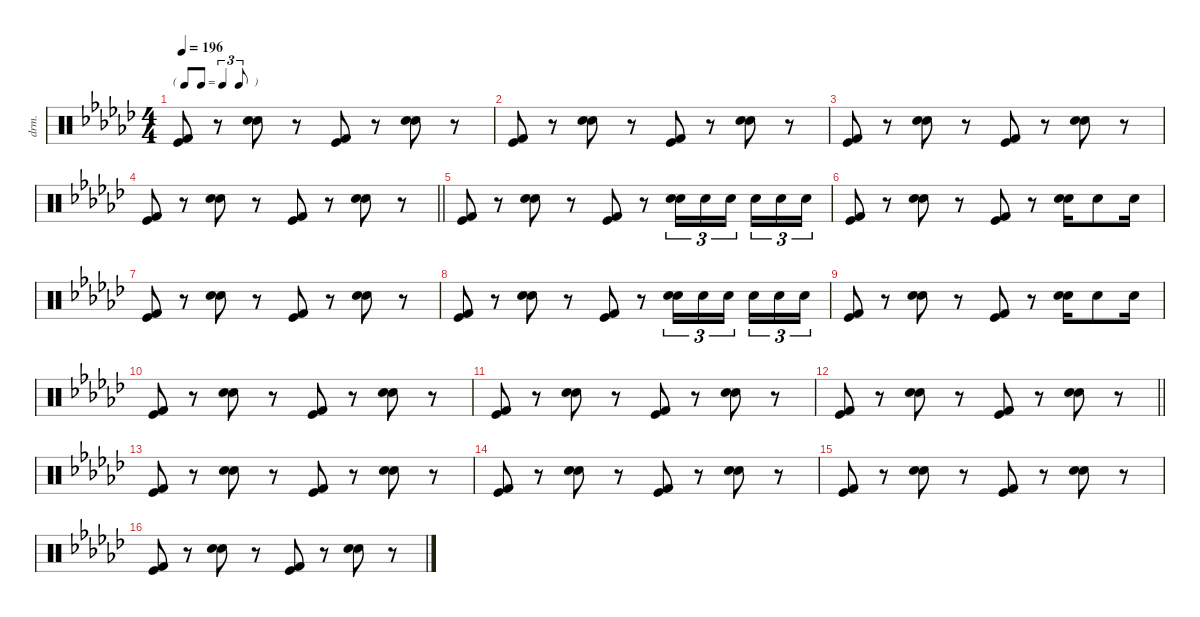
\defaultSystemsLayout 4
\hideDynamics
\bracketExtendMode nobrackets
\otherSystemsTrackNameOrientation horizontal
\track ("Percussions" "drm.") {defaultSystemsLayout 4 instrument percussion}
\staff {score}
\articulation defaults
\ts (4 4)
\tf triplet8th
\tempo 196
\clef neutral
\ks gb
("Kick (hit) 2"{acc forcenatural} "Kick (hit)"{acc forcenatural}).8{dy f beam Up} r.8{beam Up} ("Snare (hit) 2"{acc forcenatural} "Snare (hit) 2"{acc forcenatural}).8{beam Down} r.8{beam Down} ("Kick (hit) 2"{acc forcenatural} "Kick (hit)"{acc forcenatural}).8{beam Up} r.8{beam Up} ("Snare (hit) 2"{acc forcenatural} "Snare (hit) 2"{acc forcenatural}).8{beam Down} r.8{beam Down} |
("Kick (hit) 2"{acc forcenatural} "Kick (hit)"{acc forcenatural}).8{beam Up} r.8{beam Up} ("Snare (hit) 2"{acc forcenatural} "Snare (hit) 2"{acc forcenatural}).8{beam Down} r.8{beam Down} ("Kick (hit) 2"{acc forcenatural} "Kick (hit)"{acc forcenatural}).8{beam Up} r.8{beam Up} ("Snare (hit) 2"{acc forcenatural} "Snare (hit) 2"{acc forcenatural}).8{beam Down} r.8{beam Down} |
("Kick (hit) 2"{acc forcenatural} "Kick (hit)"{acc forcenatural}).8{beam Up} r.8{beam Up} ("Snare (hit) 2"{acc forcenatural} "Snare (hit) 2"{acc forcenatural}).8{beam Down} r.8{beam Down} ("Kick (hit) 2"{acc forcenatural} "Kick (hit)"{acc forcenatural}).8{beam Up} r.8{beam Up} ("Snare (hit) 2"{acc forcenatural} "Snare (hit) 2"{acc forcenatural}).8{beam Down} r.8{beam Down} |
\barLineRight lightlight
("Kick (hit) 2"{acc forcenatural} "Kick (hit)"{acc forcenatural}).8{beam Up} r.8{beam Up} ("Snare (hit) 2"{acc forcenatural} "Snare (hit) 2"{acc forcenatural}).8{beam Down} r.8{beam Down} ("Kick (hit) 2"{acc forcenatural} "Kick (hit)"{acc forcenatural}).8{beam Up} r.8{beam Up} ("Snare (hit) 2"{acc forcenatural} "Snare (hit) 2"{acc forcenatural}).8{beam Down} r.8{beam Down} |
("Kick (hit) 2"{acc forcenatural} "Kick (hit)"{acc forcenatural}).8{beam Up} r.8{beam Up} ("Snare (hit) 2"{acc forcenatural} "Snare (hit) 2"{acc forcenatural}).8{beam Down} r.8{beam Down} ("Kick (hit) 2"{acc forcenatural} "Kick (hit)"{acc forcenatural}).8{beam Up} r.8{beam Up} ("Hand Clap (hit)"{acc forcenatural} "Snare (hit) 2"{acc forcenatural}).16{tu (3 2) beam Down} "Hand Clap (hit)"{acc forcenatural}.16{tu (3 2) beam Down} "Hand Clap (hit)"{acc forcenatural}.16{tu (3 2) beam Down} "Hand Clap (hit)"{acc forcenatural}.16{tu (3 2) beam Down} "Hand Clap (hit)"{acc forcenatural}.16{tu (3 2) beam Down} "Hand Clap (hit)"{acc forcenatural}.16{tu (3 2) beam Down} |
("Kick (hit) 2"{acc forcenatural} "Kick (hit)"{acc forcenatural}).8{beam Up} r.8{beam Up} ("Snare (hit) 2"{acc forcenatural} "Snare (hit) 2"{acc forcenatural}).8{beam Down} r.8{beam Down} ("Kick (hit) 2"{acc forcenatural} "Kick (hit)"{acc forcenatural}).8{beam Up} r.8{beam Up} ("Snare (hit) 2"{acc forcenatural} "Snare (hit) 2"{acc forcenatural}).16{beam Down} "Hand Clap (hit)"{acc forcenatural}.8{beam Down} "Hand Clap (hit)"{acc forcenatural}.16{beam Down} |
("Kick (hit) 2"{acc forcenatural} "Kick (hit)"{acc forcenatural}).8{beam Up} r.8{beam Up} ("Snare (hit) 2"{acc forcenatural} "Snare (hit) 2"{acc forcenatural}).8{beam Down} r.8{beam Down} ("Kick (hit) 2"{acc forcenatural} "Kick (hit)"{acc forcenatural}).8{beam Up} r.8{beam Up} ("Snare (hit) 2"{acc forcenatural} "Snare (hit) 2"{acc forcenatural}).8{beam Down} r.8{beam Down} |
("Kick (hit) 2"{acc forcenatural} "Kick (hit)"{acc forcenatural}).8{beam Up} r.8{beam Up} ("Snare (hit) 2"{acc forcenatural} "Snare (hit) 2"{acc forcenatural}).8{beam Down} r.8{beam Down} ("Kick (hit) 2"{acc forcenatural} "Kick (hit)"{acc forcenatural}).8{beam Up} r.8{beam Up} ("Hand Clap (hit)"{acc forcenatural} "Snare (hit) 2"{acc forcenatural}).16{tu (3 2) beam Down} "Hand Clap (hit)"{acc forcenatural}.16{tu (3 2) beam Down} "Hand Clap (hit)"{acc forcenatural}.16{tu (3 2) beam Down} "Hand Clap (hit)"{acc forcenatural}.16{tu (3 2) beam Down} "Hand Clap (hit)"{acc forcenatural}.16{tu (3 2) beam Down} "Hand Clap (hit)"{acc forcenatural}.16{tu (3 2) beam Down} |
("Kick (hit) 2"{acc forcenatural} "Kick (hit)"{acc forcenatural}).8{beam Up} r.8{beam Up} ("Snare (hit) 2"{acc forcenatural} "Snare (hit) 2"{acc forcenatural}).8{beam Down} r.8{beam Down} ("Kick (hit) 2"{acc forcenatural} "Kick (hit)"{acc forcenatural}).8{beam Up} r.8{beam Up} ("Snare (hit) 2"{acc forcenatural} "Snare (hit) 2"{acc forcenatural}).16{beam Down} "Hand Clap (hit)"{acc forcenatural}.8{beam Down} "Hand Clap (hit)"{acc forcenatural}.16{beam Down} |
("Kick (hit) 2"{acc forcenatural} "Kick (hit)"{acc forcenatural}).8{beam Up} r.8{beam Up} ("Snare (hit) 2"{acc forcenatural} "Snare (hit) 2"{acc forcenatural}).8{beam Down} r.8{beam Down} ("Kick (hit) 2"{acc forcenatural} "Kick (hit)"{acc forcenatural}).8{beam Up} r.8{beam Up} ("Snare (hit) 2"{acc forcenatural} "Snare (hit) 2"{acc forcenatural}).8{beam Down} r.8{beam Down} |
("Kick (hit) 2"{acc forcenatural} "Kick (hit)"{acc forcenatural}).8{beam Up} r.8{beam Up} ("Snare (hit) 2"{acc forcenatural} "Snare (hit) 2"{acc forcenatural}).8{beam Down} r.8{beam Down} ("Kick (hit) 2"{acc forcenatural} "Kick (hit)"{acc forcenatural}).8{beam Up} r.8{beam Up} ("Snare (hit) 2"{acc forcenatural} "Snare (hit) 2"{acc forcenatural}).8{beam Down} r.8{beam Down} |
\barLineRight lightlight
("Kick (hit) 2"{acc forcenatural} "Kick (hit)"{acc forcenatural}).8{beam Up} r.8{beam Up} ("Snare (hit) 2"{acc forcenatural} "Snare (hit) 2"{acc forcenatural}).8{beam Down} r.8{beam Down} ("Kick (hit) 2"{acc forcenatural} "Kick (hit)"{acc forcenatural}).8{beam Up} r.8{beam Up} ("Snare (hit) 2"{acc forcenatural} "Snare (hit) 2"{acc forcenatural}).8{beam Down} r.8{beam Down} |
("Kick (hit) 2"{acc forcenatural} "Kick (hit)"{acc forcenatural}).8{beam Up} r.8{beam Up} ("Snare (hit) 2"{acc forcenatural} "Snare (hit) 2"{acc forcenatural}).8{beam Down} r.8{beam Down} ("Kick (hit) 2"{acc forcenatural} "Kick (hit)"{acc forcenatural}).8{beam Up} r.8{beam Up} ("Snare (hit) 2"{acc forcenatural} "Snare (hit) 2"{acc forcenatural}).8{beam Down} r.8{beam Down} |
("Kick (hit) 2"{acc forcenatural} "Kick (hit)"{acc forcenatural}).8{beam Up} r.8{beam Up} ("Snare (hit) 2"{acc forcenatural} "Snare (hit) 2"{acc forcenatural}).8{beam Down} r.8{beam Down} ("Kick (hit) 2"{acc forcenatural} "Kick (hit)"{acc forcenatural}).8{beam Up} r.8{beam Up} ("Snare (hit) 2"{acc forcenatural} "Snare (hit) 2"{acc forcenatural}).8{beam Down} r.8{beam Down} |
("Kick (hit) 2"{acc forcenatural} "Kick (hit)"{acc forcenatural}).8{beam Up} r.8{beam Up} ("Snare (hit) 2"{acc forcenatural} "Snare (hit) 2"{acc forcenatural}).8{beam Down} r.8{beam Down} ("Kick (hit) 2"{acc forcenatural} "Kick (hit)"{acc forcenatural}).8{beam Up} r.8{beam Up} ("Snare (hit) 2"{acc forcenatural} "Snare (hit) 2"{acc forcenatural}).8{beam Down} r.8{beam Down} |
("Kick (hit) 2"{acc forcenatural} "Kick (hit)"{acc forcenatural}).8{beam Up} r.8{beam Up} ("Snare (hit) 2"{acc forcenatural} "Snare (hit) 2"{acc forcenatural}).8{beam Down} r.8{beam Down} ("Kick (hit) 2"{acc forcenatural} "Kick (hit)"{acc forcenatural}).8{beam Up} r.8{beam Up} ("Snare (hit) 2"{acc forcenatural} "Snare (hit) 2"{acc forcenatural}).8{beam Down} r.8{beam Down}
